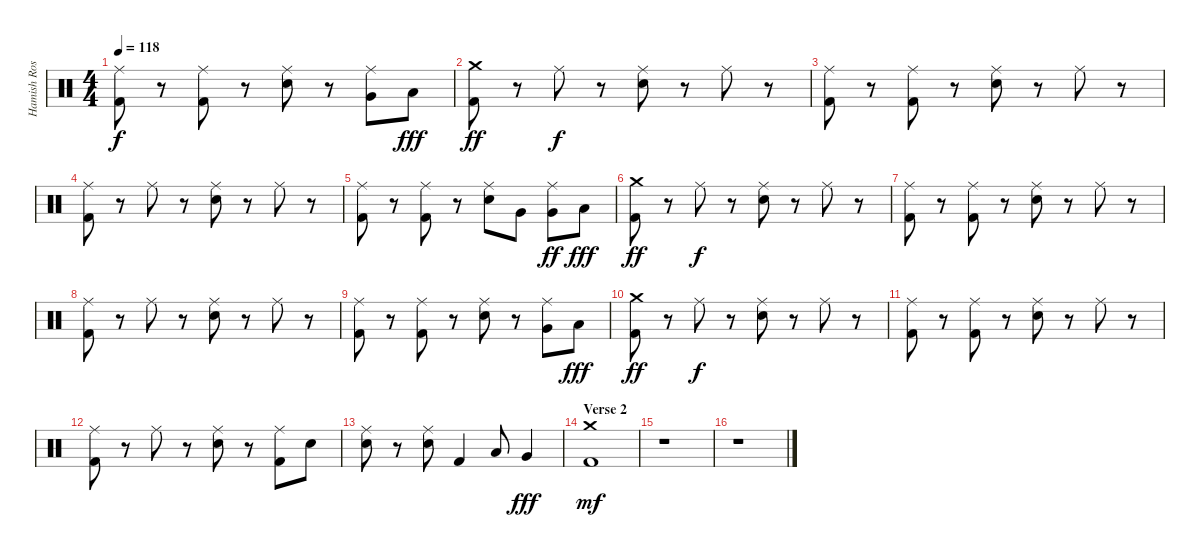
\track ("Hamish Rosser" "Hamish Ros") {instrument percussion}
\staff {score}
\articulation defaults
\ts (4 4)
\tempo 118
\clef neutral
\ks c
("Ride (middle)" "Kick (hit) 2").8{dy f} r.8 ("Ride (middle)" "Kick (hit) 2").8 r.8 ("Ride (middle)" "Electric Snare (hit)").8 r.8 ("Ride (middle)" "Very Low Tom (hit)").8 "Low Tom (hit)".8{dy fff} |
("Crash medium (hit)" "Kick (hit) 2").8{dy ff} r.8 "Ride (middle)".8{dy f} r.8 ("Ride (middle)" "Electric Snare (hit)").8 r.8 "Ride (middle)".8 r.8 |
("Ride (middle)" "Kick (hit) 2").8 r.8 ("Ride (middle)" "Kick (hit) 2").8 r.8 ("Ride (middle)" "Electric Snare (hit)").8 r.8 "Ride (middle)".8 r.8 |
("Ride (middle)" "Kick (hit) 2").8 r.8 "Ride (middle)".8 r.8 ("Ride (middle)" "Electric Snare (hit)").8 r.8 "Ride (middle)".8 r.8 |
("Ride (middle)" "Kick (hit) 2").8 r.8 ("Ride (middle)" "Kick (hit) 2").8 r.8 ("Ride (middle)" "Electric Snare (hit)").8 "Very Low Tom (hit)".8 ("Ride (middle)" "Very Low Tom (hit)").8{dy ff} "Low Tom (hit)".8{dy fff} |
("Crash medium (hit)" "Kick (hit) 2").8{dy ff} r.8 "Ride (middle)".8{dy f} r.8 ("Ride (middle)" "Electric Snare (hit)").8 r.8 "Ride (middle)".8 r.8 |
("Ride (middle)" "Kick (hit) 2").8 r.8 ("Ride (middle)" "Kick (hit) 2").8 r.8 ("Ride (middle)" "Electric Snare (hit)").8 r.8 "Ride (middle)".8 r.8 |
("Ride (middle)" "Kick (hit) 2").8 r.8 "Ride (middle)".8 r.8 ("Ride (middle)" "Electric Snare (hit)").8 r.8 "Ride (middle)".8 r.8 |
("Ride (middle)" "Kick (hit) 2").8 r.8 ("Ride (middle)" "Kick (hit) 2").8 r.8 ("Ride (middle)" "Electric Snare (hit)").8 r.8 ("Ride (middle)" "Very Low Tom (hit)").8 "Low Tom (hit)".8{dy fff} |
("Crash medium (hit)" "Kick (hit) 2").8{dy ff} r.8 "Ride (middle)".8{dy f} r.8 ("Ride (middle)" "Electric Snare (hit)").8 r.8 "Ride (middle)".8 r.8 |
("Ride (middle)" "Kick (hit) 2").8 r.8 ("Ride (middle)" "Kick (hit) 2").8 r.8 ("Ride (middle)" "Electric Snare (hit)").8 r.8 "Ride (middle)".8 r.8 |
("Ride (middle)" "Kick (hit) 2").8 r.8 "Ride (middle)".8 r.8 ("Ride (middle)" "Electric Snare (hit)").8 r.8 ("Ride (middle)" "Kick (hit) 2").8 "Electric Snare (hit)".8 |
("Ride (middle)" "Electric Snare (hit)").8 r.8 ("Ride (middle)" "Electric Snare (hit)").8 "Kick (hit) 2".4 "Low Tom (hit)".8 "Very Low Tom (hit)".4{dy fff} |
\section ("" "Verse 2")
("Crash medium (hit)" "Kick (hit) 2").1{dy mf} |
r.1 |
r.1
